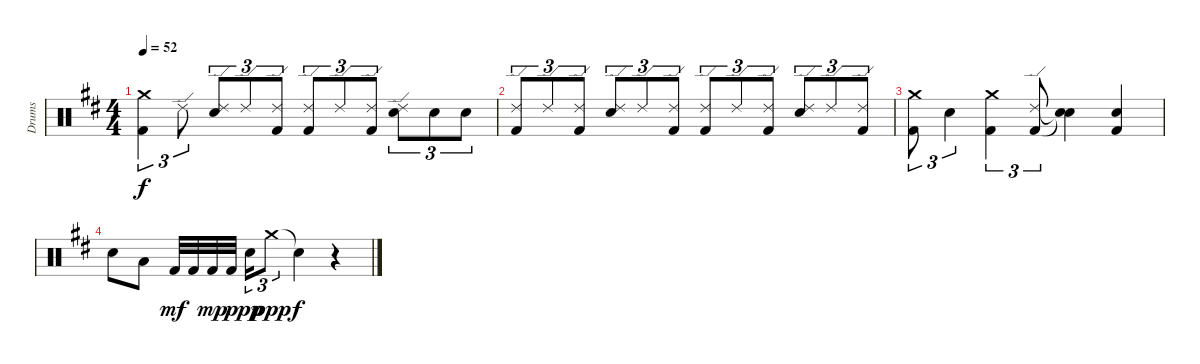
\track ("Drums" "Drums") {instrument percussion}
\staff {score}
\articulation defaults
\ts (4 4)
\tempo 52
\clef neutral
\ks d
("Crash medium (hit)" "Kick (hit) 2").4{tu (3 2) dy f} "Ride (edge) 2".8{tu (3 2)} ("Ride (edge) 2" "Snare (hit) 2").8{tu (3 2)} "Ride (edge) 2".8{tu (3 2)} ("Ride (edge) 2" "Kick (hit) 2").8{tu (3 2)} ("Ride (edge) 2" "Kick (hit) 2").8{tu (3 2)} "Ride (edge) 2".8{tu (3 2)} ("Ride (edge) 2" "Kick (hit) 2").8{tu (3 2)} ("Ride (edge) 2" "Snare (hit) 2").8{tu (3 2)} "Snare (hit) 2".8{tu (3 2)} "Snare (hit) 2".8{tu (3 2)} |
("Ride (edge) 2" "Kick (hit) 2").8{tu (3 2)} "Ride (edge) 2".8{tu (3 2)} ("Ride (edge) 2" "Kick (hit) 2").8{tu (3 2)} ("Ride (edge) 2" "Snare (hit) 2").8{tu (3 2)} "Ride (edge) 2".8{tu (3 2)} ("Ride (edge) 2" "Kick (hit) 2").8{tu (3 2)} ("Ride (edge) 2" "Kick (hit) 2").8{tu (3 2)} "Ride (edge) 2".8{tu (3 2)} ("Ride (edge) 2" "Kick (hit) 2").8{tu (3 2)} ("Ride (edge) 2" "Snare (hit) 2").8{tu (3 2)} "Ride (edge) 2".8{tu (3 2)} ("Ride (edge) 2" "Kick (hit) 2").8{tu (3 2)} |
("Crash medium (hit)" "Kick (hit) 2").8{tu (3 2)} "Snare (hit) 2".4{tu (3 2)} ("Crash medium (hit)" "Kick (hit) 2").4{tu (3 2)} ("Ride (edge) 2" "Kick (hit) 2").8{tu (3 2)} ("Snare (hit)"{t} "Snare (hit)"{t}).4 ("Snare (hit) 2" "Kick (hit) 2").4 |
"Snare (hit) 2".8 "Low Tom (hit)".8 "Kick (hit) 2".32{dy mf} "Kick (hit) 2".32 "Kick (hit) 2".32{dy mp} "Kick (hit) 2".32{dy p} "Snare (hit) 2".16{tu (3 2) dy pp} "Crash medium (hit)".8{tu (3 2) dy ppp} "Snare (hit)"{t}.4{dy f} r.4
